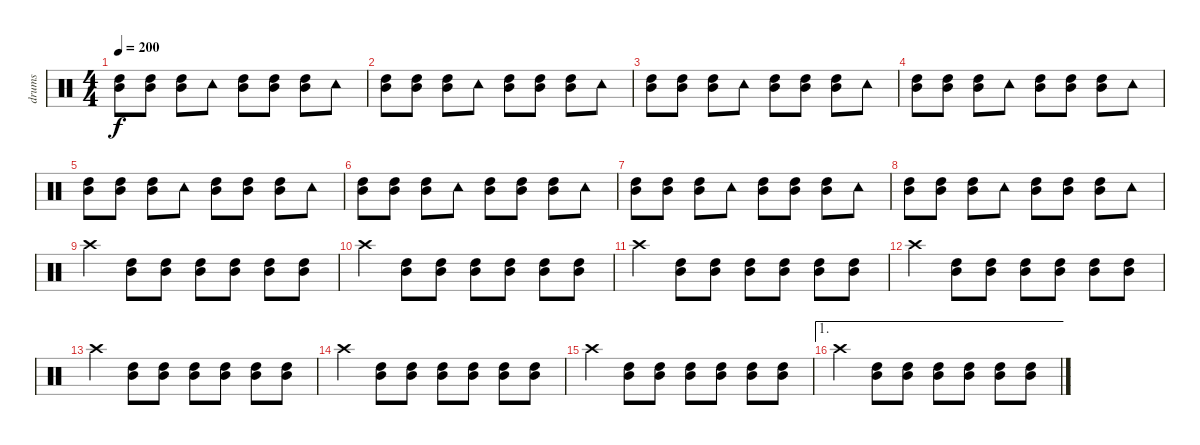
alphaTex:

\track ("drums" "drums") {instrument percussion}
\staff {score}
\articulation defaults
\ts (4 4)
\tempo 200
\clef neutral
\ks c
("Mid Tom (hit)" "High Tom (hit)").8{dy f} ("Mid Tom (hit)" "High Tom (hit)").8 ("Mid Tom (hit)" "High Tom (hit)").8 "Tambourine (hit)".8 ("Mid Tom (hit)" "High Tom (hit)").8 ("Mid Tom (hit)" "High Tom (hit)").8 ("Mid Tom (hit)" "High Tom (hit)").8 "Tambourine (hit)".8 |
("Mid Tom (hit)" "High Tom (hit)").8 ("Mid Tom (hit)" "High Tom (hit)").8 ("Mid Tom (hit)" "High Tom (hit)").8 "Tambourine (hit)".8 ("Mid Tom (hit)" "High Tom (hit)").8 ("Mid Tom (hit)" "High Tom (hit)").8 ("Mid Tom (hit)" "High Tom (hit)").8 "Tambourine (hit)".8 |
("Mid Tom (hit)" "High Tom (hit)").8 ("Mid Tom (hit)" "High Tom (hit)").8 ("Mid Tom (hit)" "High Tom (hit)").8 "Tambourine (hit)".8 ("Mid Tom (hit)" "High Tom (hit)").8 ("Mid Tom (hit)" "High Tom (hit)").8 ("Mid Tom (hit)" "High Tom (hit)").8 "Tambourine (hit)".8 |
("Mid Tom (hit)" "High Tom (hit)").8 ("Mid Tom (hit)" "High Tom (hit)").8 ("Mid Tom (hit)" "High Tom (hit)").8 "Tambourine (hit)".8 ("Mid Tom (hit)" "High Tom (hit)").8 ("Mid Tom (hit)" "High Tom (hit)").8 ("Mid Tom (hit)" "High Tom (hit)").8 "Tambourine (hit)".8 |
("Mid Tom (hit)" "High Tom (hit)").8 ("Mid Tom (hit)" "High Tom (hit)").8 ("Mid Tom (hit)" "High Tom (hit)").8 "Tambourine (hit)".8 ("Mid Tom (hit)" "High Tom (hit)").8 ("Mid Tom (hit)" "High Tom (hit)").8 ("Mid Tom (hit)" "High Tom (hit)").8 "Tambourine (hit)".8 |
("Mid Tom (hit)" "High Tom (hit)").8 ("Mid Tom (hit)" "High Tom (hit)").8 ("Mid Tom (hit)" "High Tom (hit)").8 "Tambourine (hit)".8 ("Mid Tom (hit)" "High Tom (hit)").8 ("Mid Tom (hit)" "High Tom (hit)").8 ("Mid Tom (hit)" "High Tom (hit)").8 "Tambourine (hit)".8 |
("Mid Tom (hit)" "High Tom (hit)").8 ("Mid Tom (hit)" "High Tom (hit)").8 ("Mid Tom (hit)" "High Tom (hit)").8 "Tambourine (hit)".8 ("Mid Tom (hit)" "High Tom (hit)").8 ("Mid Tom (hit)" "High Tom (hit)").8 ("Mid Tom (hit)" "High Tom (hit)").8 "Tambourine (hit)".8 |
("Mid Tom (hit)" "High Tom (hit)").8 ("Mid Tom (hit)" "High Tom (hit)").8 ("Mid Tom (hit)" "High Tom (hit)").8 "Tambourine (hit)".8 ("Mid Tom (hit)" "High Tom (hit)").8 ("Mid Tom (hit)" "High Tom (hit)").8 ("Mid Tom (hit)" "High Tom (hit)").8 "Tambourine (hit)".8 |
"Crash high (hit)".4 ("Mid Tom (hit)" "High Tom (hit)").8 ("Mid Tom (hit)" "High Tom (hit)").8 ("Mid Tom (hit)" "High Tom (hit)").8 ("Mid Tom (hit)" "High Tom (hit)").8 ("Mid Tom (hit)" "High Tom (hit)").8 ("Mid Tom (hit)" "High Tom (hit)").8 |
"Crash high (hit)".4 ("Mid Tom (hit)" "High Tom (hit)").8 ("Mid Tom (hit)" "High Tom (hit)").8 ("Mid Tom (hit)" "High Tom (hit)").8 ("Mid Tom (hit)" "High Tom (hit)").8 ("Mid Tom (hit)" "High Tom (hit)").8 ("Mid Tom (hit)" "High Tom (hit)").8 |
"Crash high (hit)".4 ("Mid Tom (hit)" "High Tom (hit)").8 ("Mid Tom (hit)" "High Tom (hit)").8 ("Mid Tom (hit)" "High Tom (hit)").8 ("Mid Tom (hit)" "High Tom (hit)").8 ("Mid Tom (hit)" "High Tom (hit)").8 ("Mid Tom (hit)" "High Tom (hit)").8 |
"Crash high (hit)".4 ("Mid Tom (hit)" "High Tom (hit)").8 ("Mid Tom (hit)" "High Tom (hit)").8 ("Mid Tom (hit)" "High Tom (hit)").8 ("Mid Tom (hit)" "High Tom (hit)").8 ("Mid Tom (hit)" "High Tom (hit)").8 ("Mid Tom (hit)" "High Tom (hit)").8 |
"Crash high (hit)".4 ("Mid Tom (hit)" "High Tom (hit)").8 ("Mid Tom (hit)" "High Tom (hit)").8 ("Mid Tom (hit)" "High Tom (hit)").8 ("Mid Tom (hit)" "High Tom (hit)").8 ("Mid Tom (hit)" "High Tom (hit)").8 ("Mid Tom (hit)" "High Tom (hit)").8 |
"Crash high (hit)".4 ("Mid Tom (hit)" "High Tom (hit)").8 ("Mid Tom (hit)" "High Tom (hit)").8 ("Mid Tom (hit)" "High Tom (hit)").8 ("Mid Tom (hit)" "High Tom (hit)").8 ("Mid Tom (hit)" "High Tom (hit)").8 ("Mid Tom (hit)" "High Tom (hit)").8 |
"Crash high (hit)".4 ("Mid Tom (hit)" "High Tom (hit)").8 ("Mid Tom (hit)" "High Tom (hit)").8 ("Mid Tom (hit)" "High Tom (hit)").8 ("Mid Tom (hit)" "High Tom (hit)").8 ("Mid Tom (hit)" "High Tom (hit)").8 ("Mid Tom (hit)" "High Tom (hit)").8 |
\ae 1 "Crash high (hit)".4
("Mid Tom (hit)" "High Tom (hit)").8 ("Mid Tom (hit)" "High Tom (hit)").8 ("Mid Tom (hit)" "High Tom (hit)").8 ("Mid Tom (hit)" "High Tom (hit)").8 ("Mid Tom (hit)" "High Tom (hit)").8 ("Mid Tom (hit)" "High Tom (hit)").8
